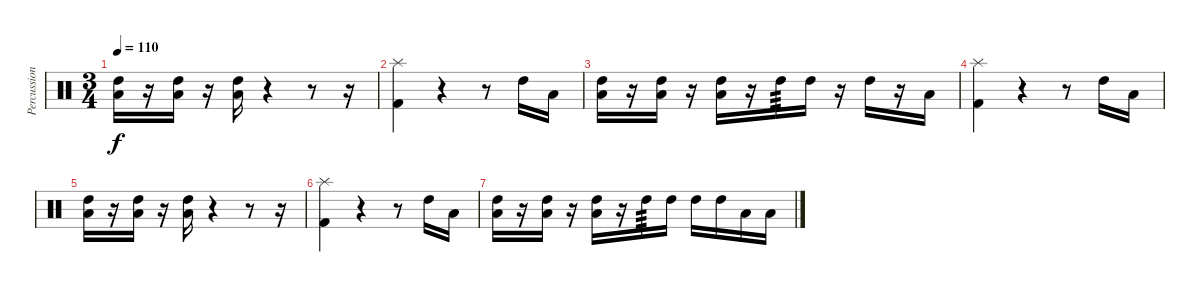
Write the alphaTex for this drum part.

\track ("Percussion" "Percussion") {instrument percussion}
\staff {score}
\articulation defaults
\ts (3 4)
\tempo 110
\clef neutral
\ks c
("High Tom (hit)" "Low Floor Tom (hit)").16{dy f} r.16 ("High Tom (hit)" "Low Floor Tom (hit)").16 r.16 ("High Tom (hit)" "Low Floor Tom (hit)").16 r.4 r.8 r.16 |
("Splash (hit)" "Kick (hit) 2").4 r.4 r.8 "High Tom (hit)".16 "Low Tom (hit)".16 |
("High Tom (hit)" "Low Floor Tom (hit)").16 r.16 ("High Tom (hit)" "Low Floor Tom (hit)").16 r.16 ("High Tom (hit)" "Low Floor Tom (hit)").16 r.16 "High Tom (hit)".16{tp 3} "High Tom (hit)".16 r.16 "High Tom (hit)".16 r.16 "Low Floor Tom (hit)".16 |
("Splash (hit)" "Kick (hit) 2").4 r.4 r.8 "High Tom (hit)".16 "Low Tom (hit)".16 |
("High Tom (hit)" "Low Floor Tom (hit)").16 r.16 ("High Tom (hit)" "Low Floor Tom (hit)").16 r.16 ("High Tom (hit)" "Low Floor Tom (hit)").16 r.4 r.8 r.16 |
("Splash (hit)" "Kick (hit) 2").4 r.4 r.8 "High Tom (hit)".16 "Low Tom (hit)".16 |
("High Tom (hit)" "Low Floor Tom (hit)").16 r.16 ("High Tom (hit)" "Low Floor Tom (hit)").16 r.16 ("High Tom (hit)" "Low Floor Tom (hit)").16 r.16 "High Tom (hit)".16{tp 3} "High Tom (hit)".16 "High Tom (hit)".16 "High Tom (hit)".16 "Low Tom (hit)".16 "Low Floor Tom (hit)".16
